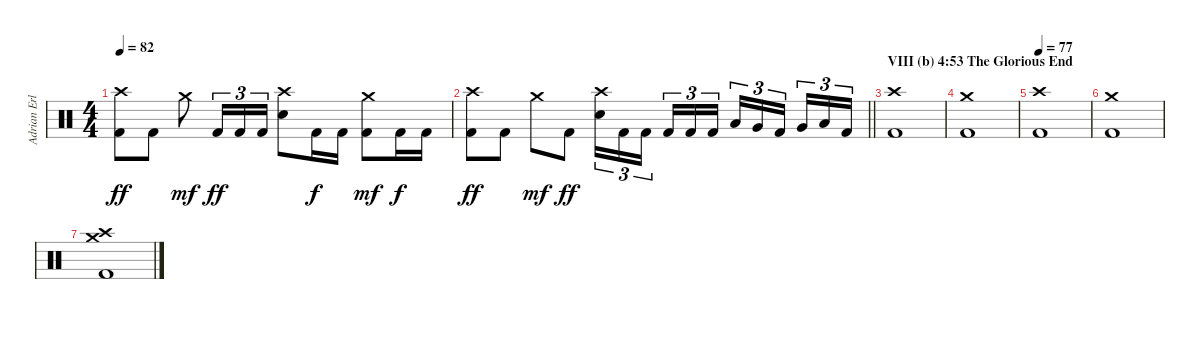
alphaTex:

\track ("Adrian Erlandsson (drums)" "Adrian Erl") {instrument percussion}
\staff {score}
\articulation defaults
\ts (4 4)
\tempo 82
\clef neutral
\ks c
("Crash high (hit)" "Kick (hit) 2").8{dy ff} "Kick (hit) 2".8 "Crash medium (hit)".8{dy mf} "Kick (hit) 2".16{tu (3 2) dy ff} "Kick (hit) 2".16{tu (3 2)} "Kick (hit) 2".16{tu (3 2)} ("Crash high (hit)" "Electric Snare (hit)").8 "Kick (hit) 2".16{dy f} "Kick (hit) 2".16 ("Crash medium (hit)" "Kick (hit) 2").8{dy mf} "Kick (hit) 2".16{dy f} "Kick (hit) 2".16 |
\barLineRight lightlight
("Crash high (hit)" "Kick (hit) 2").8{dy ff} "Kick (hit) 2".8 "Crash medium (hit)".8{dy mf} "Kick (hit) 2".8{dy ff} ("Crash high (hit)" "Electric Snare (hit)").16{tu (3 2)} "Kick (hit) 2".16{tu (3 2)} "Kick (hit) 2".16{tu (3 2) beam splitsecondary} "Kick (hit) 2".16{tu (3 2)} "Kick (hit) 2".16{tu (3 2)} "Kick (hit) 2".16{tu (3 2)} "Low Tom (hit)".16{tu (3 2)} "Very Low Tom (hit)".16{tu (3 2)} "Kick (hit) 2".16{tu (3 2) beam splitsecondary} "Very Low Tom (hit)".16{tu (3 2)} "Low Floor Tom (hit)".16{tu (3 2)} "Kick (hit) 2".16{tu (3 2)} |
\section ("" "VIII (b) 4:53 The Glorious End")
("Crash high (hit)" "Kick (hit) 2").1 |
("Crash medium (hit)" "Kick (hit) 2").1 |
\tempo 77
("Crash high (hit)" "Kick (hit) 2").1 |
("Crash medium (hit)" "Kick (hit) 2").1 |
("Crash high (hit)" "Crash medium (hit)" "Kick (hit) 2").1
